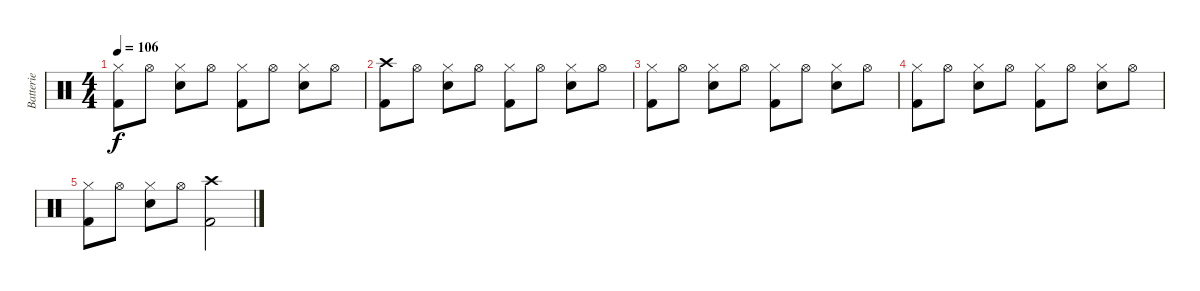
\track ("Batterie" "Batterie") {instrument percussion}
\staff {score}
\articulation defaults
\ts (4 4)
\tempo 106
\clef neutral
\ks c
("Hi-Hat (closed)" "Kick (hit) 2").8{dy f} "Hi-Hat (open)".8 ("Hi-Hat (closed)" "Electric Snare (hit)").8 "Hi-Hat (open)".8 ("Hi-Hat (closed)" "Kick (hit) 2").8 "Hi-Hat (open)".8 ("Hi-Hat (closed)" "Electric Snare (hit)").8 "Hi-Hat (open)".8 |
("Crash high (hit)" "Kick (hit) 2").8 "Hi-Hat (open)".8 ("Hi-Hat (closed)" "Electric Snare (hit)").8 "Hi-Hat (open)".8 ("Hi-Hat (closed)" "Kick (hit) 2").8 "Hi-Hat (open)".8 ("Hi-Hat (closed)" "Electric Snare (hit)").8 "Hi-Hat (open)".8 |
("Hi-Hat (closed)" "Kick (hit) 2").8 "Hi-Hat (open)".8 ("Hi-Hat (closed)" "Electric Snare (hit)").8 "Hi-Hat (open)".8 ("Hi-Hat (closed)" "Kick (hit) 2").8 "Hi-Hat (open)".8 ("Hi-Hat (closed)" "Electric Snare (hit)").8 "Hi-Hat (open)".8 |
("Hi-Hat (closed)" "Kick (hit) 2").8 "Hi-Hat (open)".8 ("Hi-Hat (closed)" "Electric Snare (hit)").8 "Hi-Hat (open)".8 ("Hi-Hat (closed)" "Kick (hit) 2").8 "Hi-Hat (open)".8 ("Hi-Hat (closed)" "Electric Snare (hit)").8 "Hi-Hat (open)".8 |
("Hi-Hat (closed)" "Kick (hit) 2").8 "Hi-Hat (open)".8 ("Hi-Hat (closed)" "Electric Snare (hit)").8 "Hi-Hat (open)".8 ("Crash high (hit)" "Kick (hit) 2").2
